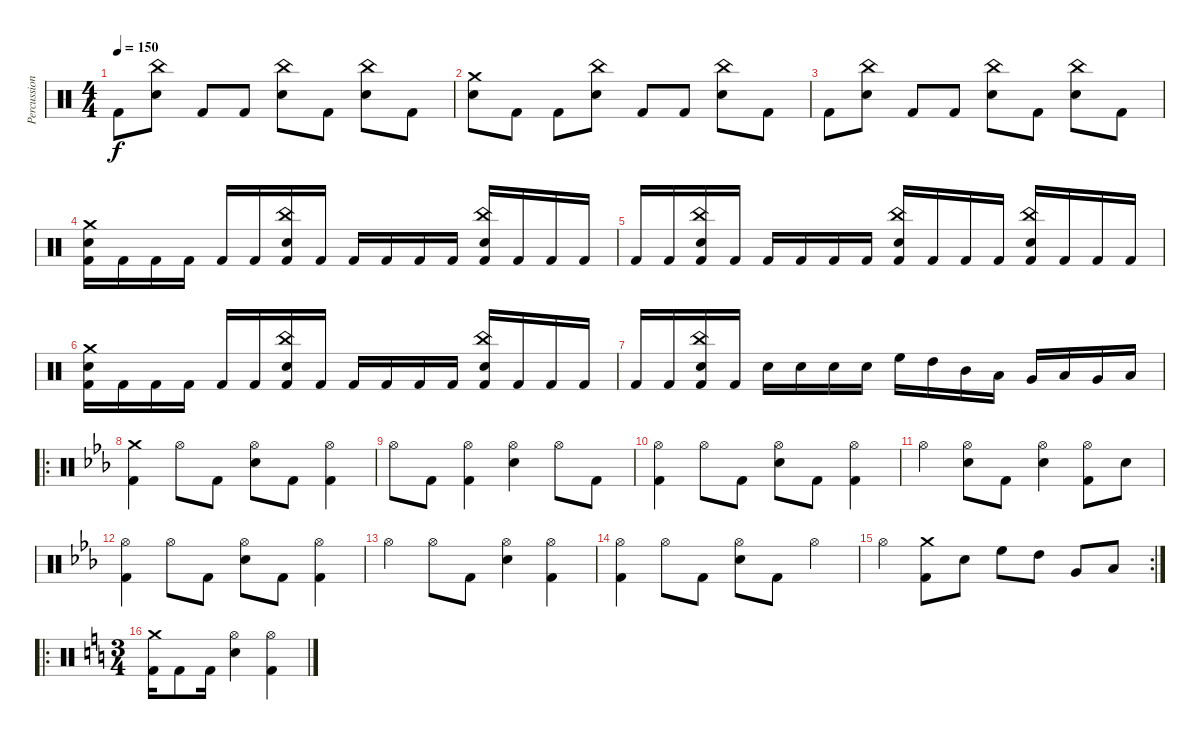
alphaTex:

\track ("Percussion" "Percussion") {instrument percussion}
\staff {score}
\articulation defaults
\ts (4 4)
\tempo 150
\clef neutral
\ks aminor "Kick (hit) 2".8{dy f}
("China (hit)" "Electric Snare (hit)").8 "Kick (hit) 2".8 "Kick (hit) 2".8 ("China (hit)" "Electric Snare (hit)").8 "Kick (hit) 2".8 ("China (hit)" "Electric Snare (hit)").8 "Kick (hit) 2".8 |
("Crash medium (hit)" "Electric Snare (hit)").8 "Kick (hit) 2".8 "Kick (hit) 2".8 ("China (hit)" "Electric Snare (hit)").8 "Kick (hit) 2".8 "Kick (hit) 2".8 ("China (hit)" "Electric Snare (hit)").8 "Kick (hit) 2".8 |
"Kick (hit) 2".8 ("China (hit)" "Electric Snare (hit)").8 "Kick (hit) 2".8 "Kick (hit) 2".8 ("China (hit)" "Electric Snare (hit)").8 "Kick (hit) 2".8 ("China (hit)" "Electric Snare (hit)").8 "Kick (hit) 2".8 |
("Crash medium (hit)" "Electric Snare (hit)" "Kick (hit) 2").16 "Kick (hit) 2".16 "Kick (hit) 2".16 "Kick (hit) 2".16 "Kick (hit) 2".16 "Kick (hit) 2".16 ("China (hit)" "Electric Snare (hit)" "Kick (hit) 2").16 "Kick (hit) 2".16 "Kick (hit) 2".16 "Kick (hit) 2".16 "Kick (hit) 2".16 "Kick (hit) 2".16 ("China (hit)" "Electric Snare (hit)" "Kick (hit) 2").16 "Kick (hit) 2".16 "Kick (hit) 2".16 "Kick (hit) 2".16 |
"Kick (hit) 2".16 "Kick (hit) 2".16 ("China (hit)" "Electric Snare (hit)" "Kick (hit) 2").16 "Kick (hit) 2".16 "Kick (hit) 2".16 "Kick (hit) 2".16 "Kick (hit) 2".16 "Kick (hit) 2".16 ("China (hit)" "Electric Snare (hit)" "Kick (hit) 2").16 "Kick (hit) 2".16 "Kick (hit) 2".16 "Kick (hit) 2".16 ("China (hit)" "Electric Snare (hit)" "Kick (hit) 2").16 "Kick (hit) 2".16 "Kick (hit) 2".16 "Kick (hit) 2".16 |
("Crash medium (hit)" "Electric Snare (hit)" "Kick (hit) 2").16 "Kick (hit) 2".16 "Kick (hit) 2".16 "Kick (hit) 2".16 "Kick (hit) 2".16 "Kick (hit) 2".16 ("China (hit)" "Electric Snare (hit)" "Kick (hit) 2").16 "Kick (hit) 2".16 "Kick (hit) 2".16 "Kick (hit) 2".16 "Kick (hit) 2".16 "Kick (hit) 2".16 ("China (hit)" "Electric Snare (hit)" "Kick (hit) 2").16 "Kick (hit) 2".16 "Kick (hit) 2".16 "Kick (hit) 2".16 |
"Kick (hit) 2".16 "Kick (hit) 2".16 ("China (hit)" "Electric Snare (hit)" "Kick (hit) 2").16 "Kick (hit) 2".16 "Electric Snare (hit)".16 "Electric Snare (hit)".16 "Electric Snare (hit)".16 "Electric Snare (hit)".16 "High Floor Tom (hit)".16 "High Tom (hit)".16 "Mid Tom (hit)".16 "Low Tom (hit)".16 "Very Low Tom (hit)".16 "Low Tom (hit)".16 "Very Low Tom (hit)".16 "Low Floor Tom (hit)".16 |
\ro
\ks cminor
("Crash medium (hit)" "Kick (hit) 2").4 "Hi-Hat (open)".8 "Kick (hit) 2".8 ("Hi-Hat (open)" "Electric Snare (hit)").8 "Kick (hit) 2".8 ("Hi-Hat (open)" "Kick (hit) 2").4 |
"Hi-Hat (open)".8 "Kick (hit) 2".8 ("Hi-Hat (open)" "Kick (hit) 2").4 ("Hi-Hat (open)" "Electric Snare (hit)").4 "Hi-Hat (open)".8 "Kick (hit) 2".8 |
("Hi-Hat (open)" "Kick (hit) 2").4 "Hi-Hat (open)".8 "Kick (hit) 2".8 ("Hi-Hat (open)" "Electric Snare (hit)").8 "Kick (hit) 2".8 ("Hi-Hat (open)" "Kick (hit) 2").4 |
"Hi-Hat (open)".4 ("Hi-Hat (open)" "Electric Snare (hit)").8 "Kick (hit) 2".8 ("Hi-Hat (open)" "Electric Snare (hit)").4 ("Hi-Hat (open)" "Kick (hit) 2").8 "Electric Snare (hit)".8 |
("Hi-Hat (open)" "Kick (hit) 2").4 "Hi-Hat (open)".8 "Kick (hit) 2".8 ("Hi-Hat (open)" "Electric Snare (hit)").8 "Kick (hit) 2".8 ("Hi-Hat (open)" "Kick (hit) 2").4 |
"Hi-Hat (open)".4 "Hi-Hat (open)".8 "Kick (hit) 2".8 ("Hi-Hat (open)" "Electric Snare (hit)").4 ("Hi-Hat (open)" "Kick (hit) 2").4 |
("Hi-Hat (open)" "Kick (hit) 2").4 "Hi-Hat (open)".8 "Kick (hit) 2".8 ("Hi-Hat (open)" "Electric Snare (hit)").8 "Kick (hit) 2".8 "Hi-Hat (open)".4 |
\rc 2 "Hi-Hat (open)".4
("Crash medium (hit)" "Kick (hit) 2").8 "Electric Snare (hit)".8 "High Floor Tom (hit)".8 "High Tom (hit)".8 "Very Low Tom (hit)".8 "Low Floor Tom (hit)".8 |
\ro
\ts (3 4)
\ks aminor
("Crash medium (hit)" "Kick (hit) 2").16 "Kick (hit) 2".8 "Kick (hit) 2".16 ("Hi-Hat (open)" "Electric Snare (hit)").4 ("Hi-Hat (open)" "Kick (hit) 2").4
